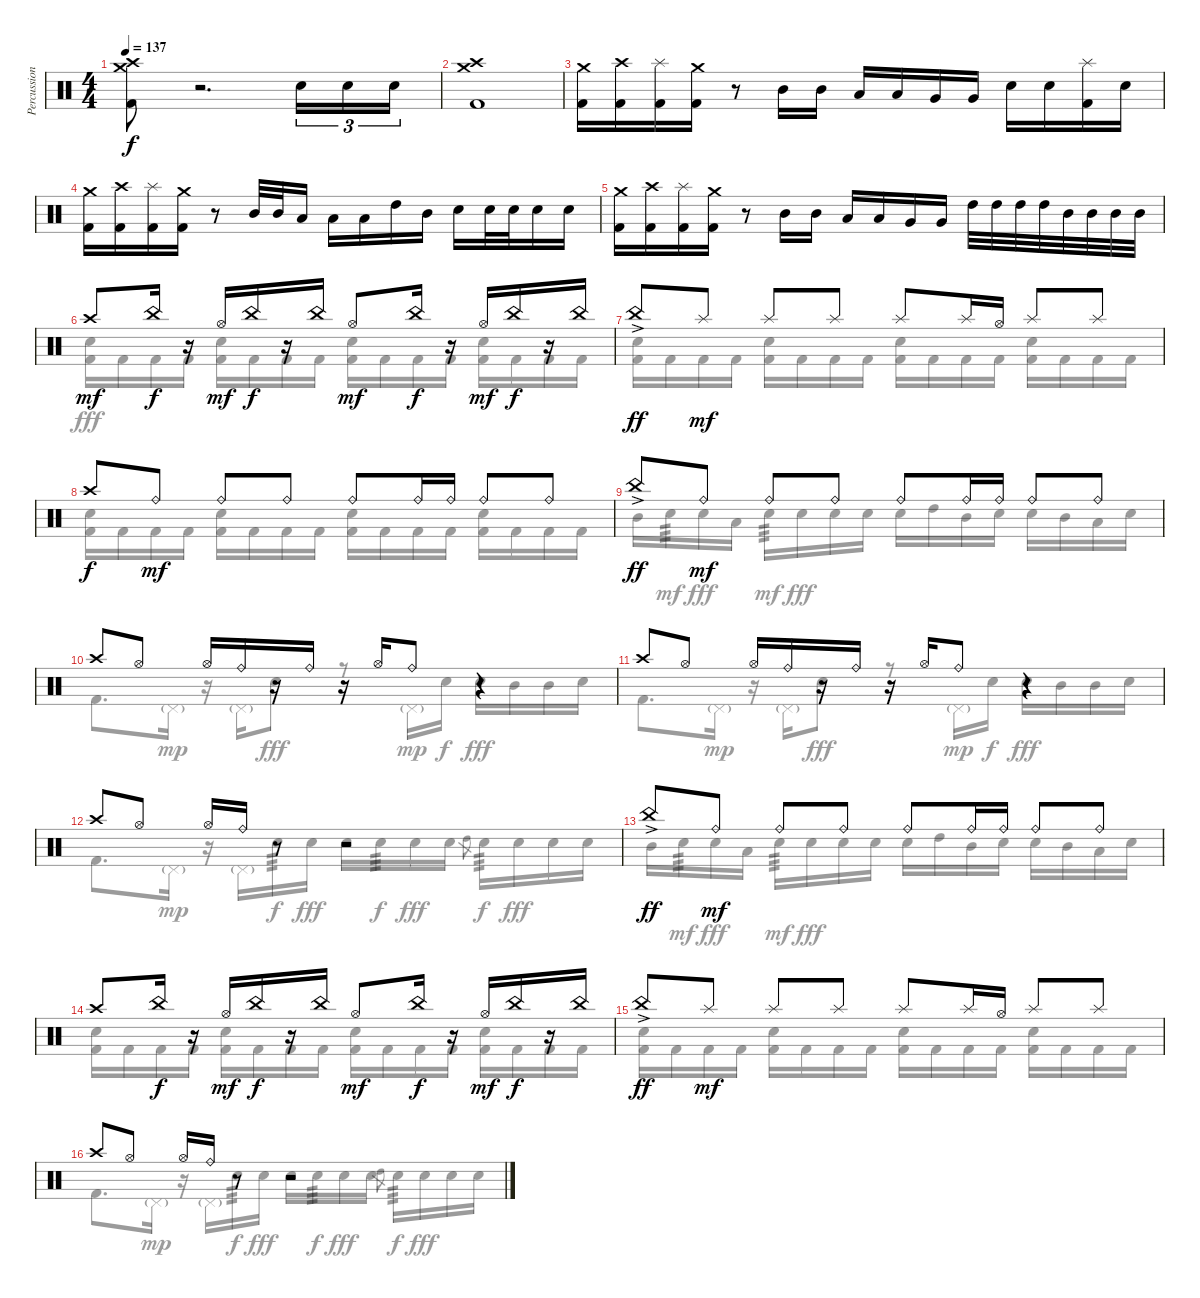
\track ("Percussion" "Percussion") {instrument percussion}
\staff {score}
\articulation defaults
\voice
\ts (4 4)
\tempo 137
\clef neutral
\ks c
("Crash high (hit)" "Crash medium (hit)" "Kick (hit) 2").8{dy f} r.2{d volume 0} "Electric Snare (hit)".16{tu (3 2) volume 11} "Electric Snare (hit)".16{tu (3 2)} "Electric Snare (hit)".16{tu (3 2)} |
("Crash medium (hit)" "Crash high (hit)" "Kick (hit) 2").1{volume 13} |
("Crash medium (hit)" "Kick (hit) 2").16 ("Crash high (hit)" "Kick (hit) 2").16 ("Splash (hit)" "Kick (hit) 2").16 ("Crash medium (hit)" "Kick (hit) 2").16 r.8 "Mid Tom (hit)".16 "Mid Tom (hit)".16 "Low Tom (hit)".16 "Low Tom (hit)".16 "Very Low Tom (hit)".16 "Very Low Tom (hit)".16 "Electric Snare (hit)".16 "Electric Snare (hit)".16 ("Splash (hit)" "Kick (hit) 2").16 "Electric Snare (hit)".16 |
("Crash medium (hit)" "Kick (hit) 2").16 ("Crash high (hit)" "Kick (hit) 2").16 ("Splash (hit)" "Kick (hit) 2").16 ("Crash medium (hit)" "Kick (hit) 2").16 r.8 "Mid Tom (hit)".32 "Mid Tom (hit)".32 "Low Tom (hit)".16 "Low Tom (hit)".16 "Low Tom (hit)".16 "High Tom (hit)".16 "Mid Tom (hit)".16 "Electric Snare (hit)".16 "Electric Snare (hit)".32 "Electric Snare (hit)".32 "Electric Snare (hit)".16 "Electric Snare (hit)".16 |
("Crash medium (hit)" "Kick (hit) 2").16 ("Crash high (hit)" "Kick (hit) 2").16 ("Splash (hit)" "Kick (hit) 2").16 ("Crash medium (hit)" "Kick (hit) 2").16 r.8 "Mid Tom (hit)".16 "Mid Tom (hit)".16 "Low Tom (hit)".16 "Low Tom (hit)".16 "Very Low Tom (hit)".16 "Very Low Tom (hit)".16 "High Tom (hit)".32 "High Tom (hit)".32 "High Tom (hit)".32 "High Tom (hit)".32 "Mid Tom (hit)".32 "Mid Tom (hit)".32 "Mid Tom (hit)".32 "Mid Tom (hit)".32 |
"Crash high (hit)".8{dy mf} "China (hit)".16{dy f} r.16 "Hi-Hat (open)".16{dy mf} "China (hit)".16{dy f} r.16 "China (hit)".16 "Hi-Hat (open)".8{dy mf} "China (hit)".16{dy f} r.16 "Hi-Hat (open)".16{dy mf} "China (hit)".16{dy f} r.16 "China (hit)".16 |
"China (hit)"{ac}.8{dy ff} "Splash (hit)".8{dy mf} "Splash (hit)".8 "Splash (hit)".8 "Splash (hit)".8 "Splash (hit)".16 "Hi-Hat (open)".16 "Splash (hit)".8 "Splash (hit)".8 |
"Crash high (hit)".8{dy f} "Ride (bell)".8{dy mf} "Ride (bell)".8 "Ride (bell)".8 "Ride (bell)".8 "Ride (bell)".16 "Ride (bell)".16 "Ride (bell)".8 "Ride (bell)".8 |
"China (hit)"{ac}.8{dy ff} "Ride (bell)".8{dy mf} "Ride (bell)".8 "Ride (bell)".8 "Ride (bell)".8 "Ride (bell)".16 "Ride (bell)".16 "Ride (bell)".8 "Ride (bell)".8 |
"Crash high (hit)".8 "Hi-Hat (open)".8 "Hi-Hat (open)".16 "Ride (bell)".16 r.16 "Ride (bell)".16 r.16 "Hi-Hat (open)".16 "Ride (bell)".8 r.4 |
"Crash high (hit)".8 "Hi-Hat (open)".8 "Hi-Hat (open)".16 "Ride (bell)".16 r.16 "Ride (bell)".16 r.16 "Hi-Hat (open)".16 "Ride (bell)".8 r.4 |
"Crash high (hit)".8 "Hi-Hat (open)".8 "Hi-Hat (open)".16 "Ride (bell)".16 r.8 r.2 |
"China (hit)"{ac}.8{dy ff} "Ride (bell)".8{dy mf} "Ride (bell)".8 "Ride (bell)".8 "Ride (bell)".8 "Ride (bell)".16 "Ride (bell)".16 "Ride (bell)".8 "Ride (bell)".8 |
"Crash high (hit)".8 "China (hit)".16{dy f} r.16 "Hi-Hat (open)".16{dy mf} "China (hit)".16{dy f} r.16 "China (hit)".16 "Hi-Hat (open)".8{dy mf} "China (hit)".16{dy f} r.16 "Hi-Hat (open)".16{dy mf} "China (hit)".16{dy f} r.16 "China (hit)".16 |
"China (hit)"{ac}.8{dy ff} "Splash (hit)".8{dy mf} "Splash (hit)".8 "Splash (hit)".8 "Splash (hit)".8 "Splash (hit)".16 "Hi-Hat (open)".16 "Splash (hit)".8 "Splash (hit)".8 |
"Crash high (hit)".8 "Hi-Hat (open)".8 "Hi-Hat (open)".16 "Ride (bell)".16 r.8 r.2
\voice
\clef neutral
\ottava regular
\simile none
\ks c
|
|
|
|
|
("Electric Snare (hit)" "Kick (hit) 2").16{dy fff} "Kick (hit) 2".16 "Kick (hit) 2".16 "Kick (hit) 2".16 ("Electric Snare (hit)" "Kick (hit) 2").16 "Kick (hit) 2".16 "Kick (hit) 2".16 "Kick (hit) 2".16 ("Electric Snare (hit)" "Kick (hit) 2").16 "Kick (hit) 2".16 "Kick (hit) 2".16 "Kick (hit) 2".16 ("Electric Snare (hit)" "Kick (hit) 2").16 "Kick (hit) 2".16 "Kick (hit) 2".16 "Kick (hit) 2".16 |
("Electric Snare (hit)" "Kick (hit) 2").16 "Kick (hit) 2".16 "Kick (hit) 2".16 "Kick (hit) 2".16 ("Electric Snare (hit)" "Kick (hit) 2").16 "Kick (hit) 2".16 "Kick (hit) 2".16 "Kick (hit) 2".16 ("Electric Snare (hit)" "Kick (hit) 2").16 "Kick (hit) 2".16 "Kick (hit) 2".16 "Kick (hit) 2".16 ("Electric Snare (hit)" "Kick (hit) 2").16 "Kick (hit) 2".16 "Kick (hit) 2".16 "Kick (hit) 2".16 |
("Electric Snare (hit)" "Kick (hit) 2").16 "Kick (hit) 2".16 "Kick (hit) 2".16 "Kick (hit) 2".16 ("Electric Snare (hit)" "Kick (hit) 2").16 "Kick (hit) 2".16 "Kick (hit) 2".16 "Kick (hit) 2".16 ("Electric Snare (hit)" "Kick (hit) 2").16 "Kick (hit) 2".16 "Kick (hit) 2".16 "Kick (hit) 2".16 ("Electric Snare (hit)" "Kick (hit) 2").16 "Kick (hit) 2".16 "Kick (hit) 2".16 "Kick (hit) 2".16 |
"Mid Tom (hit)".16 "Electric Snare (hit)".16{tp 3 dy mf} "Electric Snare (hit)".16{dy fff} "Low Tom (hit)".16 "Electric Snare (hit)".16{tp 3 dy mf} "Electric Snare (hit)".16{dy fff} "Electric Snare (hit)".16 "Electric Snare (hit)".16 "Electric Snare (hit)".16 "High Tom (hit)".16 "Mid Tom (hit)".16 "Electric Snare (hit)".16 "Electric Snare (hit)".16 "Mid Tom (hit)".16 "Low Tom (hit)".16 "Electric Snare (hit)".16 |
"Kick (hit) 2".8{d} "Pedal Hi-Hat (hit)"{g}.16{dy mp} r.16 "Pedal Hi-Hat (hit)"{g}.16 "Electric Snare (hit)".8{dy fff} r.8 "Pedal Hi-Hat (hit)"{g}.16{dy mp} "Electric Snare (hit)".16{dy f} "Electric Snare (hit)".16{dy fff} "Mid Tom (hit)".16 "Mid Tom (hit)".16 "Electric Snare (hit)".16 |
"Kick (hit) 2".8{d} "Pedal Hi-Hat (hit)"{g}.16{dy mp} r.16 "Pedal Hi-Hat (hit)"{g}.16 "Electric Snare (hit)".8{dy fff} r.8 "Pedal Hi-Hat (hit)"{g}.16{dy mp} "Electric Snare (hit)".16{dy f} "Electric Snare (hit)".16{dy fff} "Mid Tom (hit)".16 "Mid Tom (hit)".16 "Electric Snare (hit)".16 |
"Kick (hit) 2".8{d} "Pedal Hi-Hat (hit)"{g}.16{dy mp} r.16 "Pedal Hi-Hat (hit)"{g}.16 "Electric Snare (hit)".16{tp 3 dy f} "Electric Snare (hit)".16{dy fff} "Electric Snare (hit)".16 "Electric Snare (hit)".16{tp 3 dy f} "Electric Snare (hit)".16{dy fff} "Electric Snare (hit)".16 "High Tom (hit)".8{gr} "Electric Snare (hit)".16{tp 3 dy f} "Electric Snare (hit)".16{dy fff} "Electric Snare (hit)".16 "Electric Snare (hit)".16 |
"Mid Tom (hit)".16 "Electric Snare (hit)".16{tp 3 dy mf} "Electric Snare (hit)".16{dy fff} "Low Tom (hit)".16 "Electric Snare (hit)".16{tp 3 dy mf} "Electric Snare (hit)".16{dy fff} "Electric Snare (hit)".16 "Electric Snare (hit)".16 "Electric Snare (hit)".16 "High Tom (hit)".16 "Mid Tom (hit)".16 "Electric Snare (hit)".16 "Electric Snare (hit)".16 "Mid Tom (hit)".16 "Low Tom (hit)".16 "Electric Snare (hit)".16 |
("Electric Snare (hit)" "Kick (hit) 2").16 "Kick (hit) 2".16 "Kick (hit) 2".16 "Kick (hit) 2".16 ("Electric Snare (hit)" "Kick (hit) 2").16 "Kick (hit) 2".16 "Kick (hit) 2".16 "Kick (hit) 2".16 ("Electric Snare (hit)" "Kick (hit) 2").16 "Kick (hit) 2".16 "Kick (hit) 2".16 "Kick (hit) 2".16 ("Electric Snare (hit)" "Kick (hit) 2").16 "Kick (hit) 2".16 "Kick (hit) 2".16 "Kick (hit) 2".16 |
("Electric Snare (hit)" "Kick (hit) 2").16 "Kick (hit) 2".16 "Kick (hit) 2".16 "Kick (hit) 2".16 ("Electric Snare (hit)" "Kick (hit) 2").16 "Kick (hit) 2".16 "Kick (hit) 2".16 "Kick (hit) 2".16 ("Electric Snare (hit)" "Kick (hit) 2").16 "Kick (hit) 2".16 "Kick (hit) 2".16 "Kick (hit) 2".16 ("Electric Snare (hit)" "Kick (hit) 2").16 "Kick (hit) 2".16 "Kick (hit) 2".16 "Kick (hit) 2".16 |
"Kick (hit) 2".8{d} "Pedal Hi-Hat (hit)"{g}.16{dy mp} r.16 "Pedal Hi-Hat (hit)"{g}.16 "Electric Snare (hit)".16{tp 3 dy f} "Electric Snare (hit)".16{dy fff} "Electric Snare (hit)".16 "Electric Snare (hit)".16{tp 3 dy f} "Electric Snare (hit)".16{dy fff} "Electric Snare (hit)".16 "High Tom (hit)".8{gr} "Electric Snare (hit)".16{tp 3 dy f} "Electric Snare (hit)".16{dy fff} "Electric Snare (hit)".16 "Electric Snare (hit)".16
